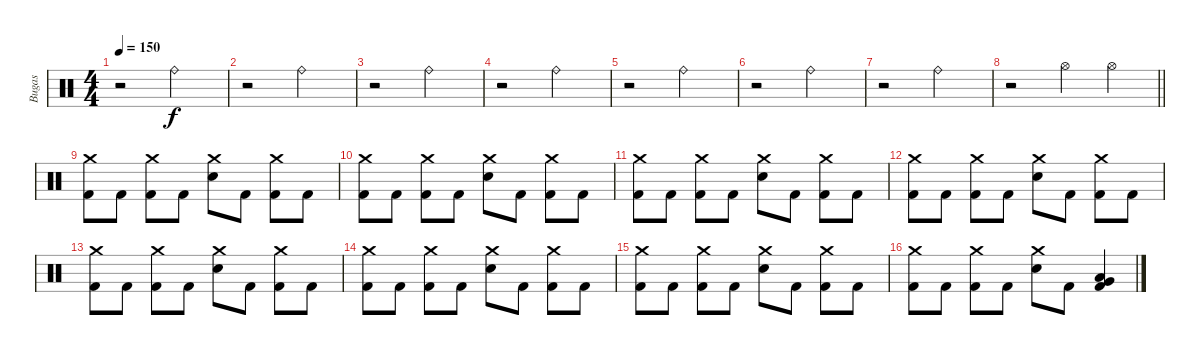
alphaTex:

\track ("Bugas" "Bugas") {instrument percussion}
\staff {score}
\articulation defaults
\ts (4 4)
\tempo 150
\clef neutral
\ks c
r.2{dy f} "Ride (bell)".2 |
r.2 "Ride (bell)".2 |
r.2 "Ride (bell)".2 |
r.2 "Ride (bell)".2 |
r.2 "Ride (bell)".2 |
r.2 "Ride (bell)".2 |
r.2 "Ride (bell)".2 |
\barLineRight lightlight
r.2 "Hi-Hat (open)".4 "Hi-Hat (open)".4 |
("Crash medium (hit)" "Kick (hit) 2").8 "Kick (hit) 2".8 ("Crash medium (hit)" "Kick (hit) 2").8 "Kick (hit) 2".8 ("Crash medium (hit)" "Electric Snare (hit)").8 "Kick (hit) 2".8 ("Crash medium (hit)" "Kick (hit) 2").8 "Kick (hit) 2".8 |
("Crash medium (hit)" "Kick (hit) 2").8 "Kick (hit) 2".8 ("Crash medium (hit)" "Kick (hit) 2").8 "Kick (hit) 2".8 ("Crash medium (hit)" "Electric Snare (hit)").8 "Kick (hit) 2".8 ("Crash medium (hit)" "Kick (hit) 2").8 "Kick (hit) 2".8 |
("Crash medium (hit)" "Kick (hit) 2").8 "Kick (hit) 2".8 ("Crash medium (hit)" "Kick (hit) 2").8 "Kick (hit) 2".8 ("Crash medium (hit)" "Electric Snare (hit)").8 "Kick (hit) 2".8 ("Crash medium (hit)" "Kick (hit) 2").8 "Kick (hit) 2".8 |
("Crash medium (hit)" "Kick (hit) 2").8 "Kick (hit) 2".8 ("Crash medium (hit)" "Kick (hit) 2").8 "Kick (hit) 2".8 ("Crash medium (hit)" "Electric Snare (hit)").8 "Kick (hit) 2".8 ("Crash medium (hit)" "Kick (hit) 2").8 "Kick (hit) 2".8 |
("Crash medium (hit)" "Kick (hit) 2").8 "Kick (hit) 2".8 ("Crash medium (hit)" "Kick (hit) 2").8 "Kick (hit) 2".8 ("Crash medium (hit)" "Electric Snare (hit)").8 "Kick (hit) 2".8 ("Crash medium (hit)" "Kick (hit) 2").8 "Kick (hit) 2".8 |
("Crash medium (hit)" "Kick (hit) 2").8 "Kick (hit) 2".8 ("Crash medium (hit)" "Kick (hit) 2").8 "Kick (hit) 2".8 ("Crash medium (hit)" "Electric Snare (hit)").8 "Kick (hit) 2".8 ("Crash medium (hit)" "Kick (hit) 2").8 "Kick (hit) 2".8 |
("Crash medium (hit)" "Kick (hit) 2").8 "Kick (hit) 2".8 ("Crash medium (hit)" "Kick (hit) 2").8 "Kick (hit) 2".8 ("Crash medium (hit)" "Electric Snare (hit)").8 "Kick (hit) 2".8 ("Crash medium (hit)" "Kick (hit) 2").8 "Kick (hit) 2".8 |
("Crash medium (hit)" "Kick (hit) 2").8 "Kick (hit) 2".8 ("Crash medium (hit)" "Kick (hit) 2").8 "Kick (hit) 2".8 ("Crash medium (hit)" "Electric Snare (hit)").8 "Kick (hit) 2".8 ("Low Tom (hit)" "Very Low Tom (hit)" "Kick (hit) 2").4
